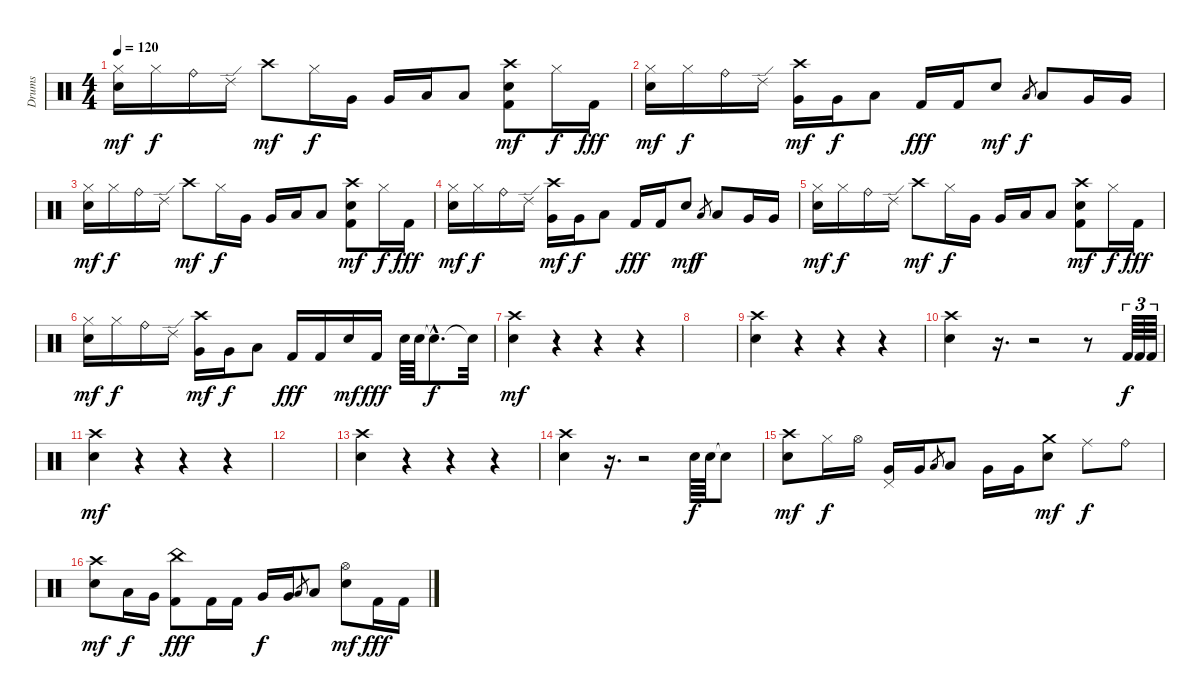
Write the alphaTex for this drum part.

\track ("Drums" "Drums") {instrument percussion}
\staff {score}
\articulation defaults
\ts (4 4)
\tempo 120
\clef neutral
\ks c
("Hi-Hat (closed)" "Electric Snare (hit)").16{dy mf} "Hi-Hat (closed)".16{dy f} "Ride (bell)".16 "Ride (edge) 2".16 "Crash high (hit)".8{dy mf} "Hi-Hat (closed)".16{dy f} "Very Low Tom (hit)".16 "Very Low Tom (hit)".16 "Low Tom (hit)".16 "Low Tom (hit)".8 ("Electric Snare (hit)" "Kick (hit) 2" "Crash high (hit)").8{dy mf} "Hi-Hat (closed)".16{dy f} "Kick (hit) 2".16{dy fff} |
("Electric Snare (hit)" "Hi-Hat (closed)").16{dy mf} "Hi-Hat (closed)".16{dy f} "Ride (bell)".16 "Ride (edge) 2".16 ("Very Low Tom (hit)" "Crash high (hit)").16{dy mf} "Very Low Tom (hit)".16{dy f} "Low Tom (hit)".8 "Kick (hit) 2".16{dy fff} "Kick (hit) 2".16 "Electric Snare (hit)".8{dy mf} "Low Tom (hit)".8{gr dy f} "Low Tom (hit)".8 "Very Low Tom (hit)".16 "Very Low Tom (hit)".16 |
("Hi-Hat (closed)" "Electric Snare (hit)").16{dy mf} "Hi-Hat (closed)".16{dy f} "Ride (bell)".16 "Ride (edge) 2".16 "Crash high (hit)".8{dy mf} "Hi-Hat (closed)".16{dy f} "Very Low Tom (hit)".16 "Very Low Tom (hit)".16 "Low Tom (hit)".16 "Low Tom (hit)".8 ("Electric Snare (hit)" "Kick (hit) 2" "Crash high (hit)").8{dy mf} "Hi-Hat (closed)".16{dy f} "Kick (hit) 2".16{dy fff} |
("Electric Snare (hit)" "Hi-Hat (closed)").16{dy mf} "Hi-Hat (closed)".16{dy f} "Ride (bell)".16 "Ride (edge) 2".16 ("Very Low Tom (hit)" "Crash high (hit)").16{dy mf} "Very Low Tom (hit)".16{dy f} "Low Tom (hit)".8 "Kick (hit) 2".16{dy fff} "Kick (hit) 2".16 "Electric Snare (hit)".8{dy mf} "Low Tom (hit)".8{gr dy f} "Low Tom (hit)".8 "Very Low Tom (hit)".16 "Very Low Tom (hit)".16 |
("Hi-Hat (closed)" "Electric Snare (hit)").16{dy mf} "Hi-Hat (closed)".16{dy f} "Ride (bell)".16 "Ride (edge) 2".16 "Crash high (hit)".8{dy mf} "Hi-Hat (closed)".16{dy f} "Very Low Tom (hit)".16 "Very Low Tom (hit)".16 "Low Tom (hit)".16 "Low Tom (hit)".8 ("Electric Snare (hit)" "Kick (hit) 2" "Crash high (hit)").8{dy mf} "Hi-Hat (closed)".16{dy f} "Kick (hit) 2".16{dy fff} |
("Electric Snare (hit)" "Hi-Hat (closed)").16{dy mf} "Hi-Hat (closed)".16{dy f} "Ride (bell)".16 "Ride (edge) 2".16 ("Very Low Tom (hit)" "Crash high (hit)").16{dy mf} "Very Low Tom (hit)".16{dy f} "Low Tom (hit)".8 "Kick (hit) 2".16{dy fff} "Kick (hit) 2".16 "Electric Snare (hit)".16{dy mf} "Kick (hit) 2".16{dy fff} "Electric Snare (hit)".64 "Electric Snare (hit)".64 "Snare (hit)"{hac t}.8{d dy f} "Snare (hit)"{t}.32 |
("Crash high (hit)" "Electric Snare (hit)").4{dy mf} r.4 r.4 r.4 |
|
("Crash high (hit)" "Electric Snare (hit)").4 r.4 r.4 r.4 |
("Crash high (hit)" "Electric Snare (hit)").4 r.16{d} r.2 r.8 "Kick (hit) 2".64{tu (3 2) dy f} "Kick (hit) 2".64{tu (3 2)} "Kick (hit) 2".64{tu (3 2)} |
("Crash high (hit)" "Electric Snare (hit)").4{dy mf} r.4 r.4 r.4 |
|
("Crash high (hit)" "Electric Snare (hit)").4 r.4 r.4 r.4 |
("Crash high (hit)" "Electric Snare (hit)").4 r.16{d} r.2 "Electric Snare (hit)".64{dy f} "Electric Snare (hit)".64 "Snare (hit)"{t}.8 |
("Crash high (hit)" "Electric Snare (hit)").8{dy mf} "Hi-Hat (closed)".16{dy f} "Hi-Hat (open)".16 ("Pedal Hi-Hat (hit)" "Very Low Tom (hit)").16 "Very Low Tom (hit)".16 "Low Tom (hit)".8{gr} "Low Tom (hit)".8 "Very Low Tom (hit)".16 "Very Low Tom (hit)".16 ("Crash medium (hit)" "Electric Snare (hit)").8{dy mf} "Ride (middle)".8{dy f} "Ride (bell)".8 |
("Crash high (hit)" "Electric Snare (hit)").8{dy mf} "Low Tom (hit)".16{dy f} "Very Low Tom (hit)".16 ("China (hit)" "Kick (hit) 2").8{dy fff} "Kick (hit) 2".16 "Kick (hit) 2".16 "Very Low Tom (hit)".16{dy f} "Very Low Tom (hit)".16 "Low Tom (hit)".8{gr} "Low Tom (hit)".8 ("Hi-Hat (open)" "Electric Snare (hit)").8{dy mf} "Kick (hit) 2".16{dy fff} "Kick (hit) 2".16
